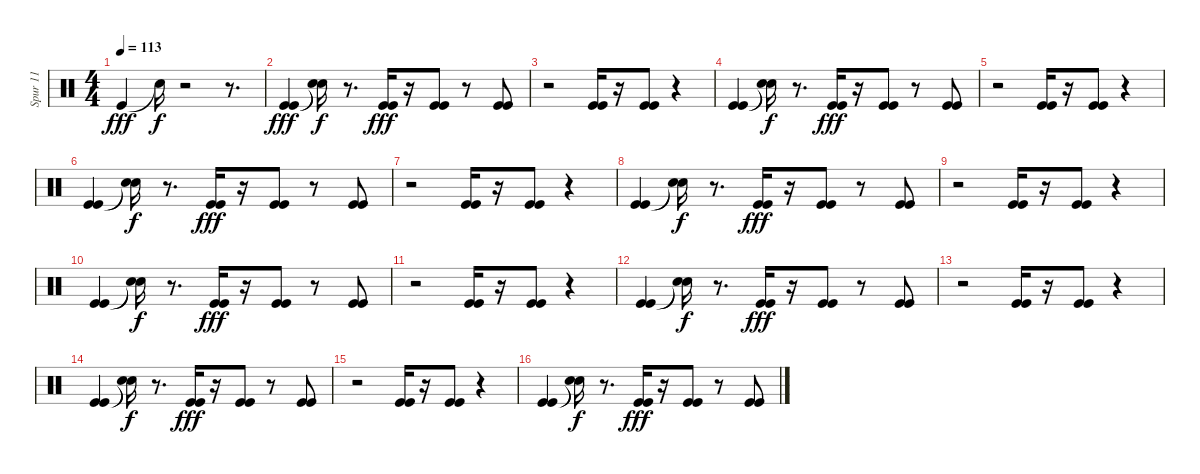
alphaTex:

\track ("Spur 11" "Spur 11") {instrument percussion}
\staff {score}
\articulation defaults
\ts (4 4)
\tempo 113
\clef neutral
\ks c "Kick (hit)".4{dy fff} "Snare (hit)"{t}.16{dy f}
r.2 r.8{d} |
("Kick (hit)" "Kick (hit)").4{dy fff} ("Snare (hit)"{t} "Snare (hit)"{t}).16{dy f} r.8{d} ("Kick (hit)" "Kick (hit)").16{dy fff volume 12} r.16 ("Kick (hit)" "Kick (hit)").8 r.8 ("Kick (hit)" "Kick (hit)").8 |
r.2 ("Kick (hit)" "Kick (hit)").16 r.16 ("Kick (hit)" "Kick (hit)").8 r.4 |
("Kick (hit)" "Kick (hit)").4{volume 13} ("Snare (hit)"{t} "Snare (hit)"{t}).16{dy f} r.8{d} ("Kick (hit)" "Kick (hit)").16{dy fff volume 12} r.16 ("Kick (hit)" "Kick (hit)").8 r.8 ("Kick (hit)" "Kick (hit)").8{volume 12} |
r.2 ("Kick (hit)" "Kick (hit)").16{volume 12} r.16 ("Kick (hit)" "Kick (hit)").8 r.4 |
("Kick (hit)" "Kick (hit)").4 ("Snare (hit)"{t} "Snare (hit)"{t}).16{dy f} r.8{d} ("Kick (hit)" "Kick (hit)").16{dy fff} r.16 ("Kick (hit)" "Kick (hit)").8 r.8 ("Kick (hit)" "Kick (hit)").8 |
r.2 ("Kick (hit)" "Kick (hit)").16 r.16 ("Kick (hit)" "Kick (hit)").8 r.4 |
("Kick (hit)" "Kick (hit)").4 ("Snare (hit)"{t} "Snare (hit)"{t}).16{dy f} r.8{d} ("Kick (hit)" "Kick (hit)").16{dy fff balance 8} r.16 ("Kick (hit)" "Kick (hit)").8 r.8 ("Kick (hit)" "Kick (hit)").8 |
r.2 ("Kick (hit)" "Kick (hit)").16 r.16 ("Kick (hit)" "Kick (hit)").8 r.4 |
("Kick (hit)" "Kick (hit)").4 ("Snare (hit)"{t} "Snare (hit)"{t}).16{dy f} r.8{d} ("Kick (hit)" "Kick (hit)").16{dy fff} r.16 ("Kick (hit)" "Kick (hit)").8 r.8 ("Kick (hit)" "Kick (hit)").8 |
r.2 ("Kick (hit)" "Kick (hit)").16 r.16 ("Kick (hit)" "Kick (hit)").8 r.4 |
("Kick (hit)" "Kick (hit)").4 ("Snare (hit)"{t} "Snare (hit)"{t}).16{dy f} r.8{d} ("Kick (hit)" "Kick (hit)").16{dy fff} r.16 ("Kick (hit)" "Kick (hit)").8 r.8 ("Kick (hit)" "Kick (hit)").8 |
r.2 ("Kick (hit)" "Kick (hit)").16 r.16 ("Kick (hit)" "Kick (hit)").8 r.4 |
("Kick (hit)" "Kick (hit)").4 ("Snare (hit)"{t} "Snare (hit)"{t}).16{dy f} r.8{d} ("Kick (hit)" "Kick (hit)").16{dy fff} r.16 ("Kick (hit)" "Kick (hit)").8 r.8 ("Kick (hit)" "Kick (hit)").8 |
r.2 ("Kick (hit)" "Kick (hit)").16 r.16 ("Kick (hit)" "Kick (hit)").8 r.4 |
("Kick (hit)" "Kick (hit)").4 ("Snare (hit)"{t} "Snare (hit)"{t}).16{dy f} r.8{d} ("Kick (hit)" "Kick (hit)").16{dy fff} r.16 ("Kick (hit)" "Kick (hit)").8 r.8 ("Kick (hit)" "Kick (hit)").8
